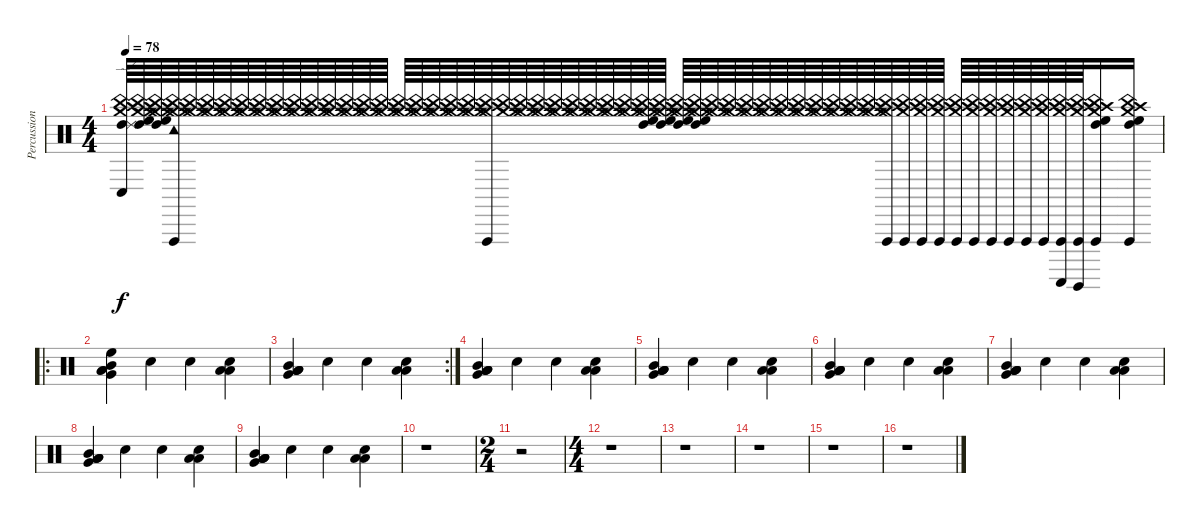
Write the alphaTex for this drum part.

\track ("Percussion" "Percussion") {instrument percussion}
\staff {score}
\articulation defaults
\ts (4 4)
\tempo 78
\clef neutral
\ks c
("Crash medium (hit)" "High Tom (hit)" "Crash high (hit)" "Ride (edge) 2" "Conga low (hit)" "China (hit)").64{dy f} ("Crash medium (hit)" "High Tom (hit)" "Crash high (hit)" "High Floor Tom (hit)" "China (hit)" "Crash medium (hit)").64 ("Crash medium (hit)" "High Tom (hit)" "Crash high (hit)" "High Floor Tom (hit)" "China (hit)" "Crash medium (hit)").64 ("Crash medium (hit)" "Tambourine (hit)" "Crash high (hit)" "Vibraslap (hit)" "China (hit)" "Crash medium (hit)").64 ("Crash medium (hit)" "Crash high (hit)" "China (hit)" "Crash medium (hit)").64 ("Crash medium (hit)" "Crash high (hit)" "China (hit)" "Crash medium (hit)").64 ("Crash medium (hit)" "Crash high (hit)" "China (hit)" "Crash medium (hit)").64 ("Crash medium (hit)" "Crash high (hit)" "China (hit)" "Crash medium (hit)").64 ("Crash medium (hit)" "Crash high (hit)" "China (hit)" "Crash medium (hit)").64 ("Crash medium (hit)" "Crash high (hit)" "China (hit)" "Crash medium (hit)").64 ("Crash medium (hit)" "Crash high (hit)" "China (hit)" "Crash medium (hit)").64 ("Crash medium (hit)" "Crash high (hit)" "China (hit)" "Crash medium (hit)").64 ("Crash medium (hit)" "Crash high (hit)" "China (hit)" "Crash medium (hit)").64 ("Crash medium (hit)" "Crash high (hit)" "China (hit)" "Crash medium (hit)").64 ("Crash medium (hit)" "Crash high (hit)" "China (hit)" "Crash medium (hit)").64 ("Crash medium (hit)" "Crash high (hit)" "China (hit)" "Crash medium (hit)").64 ("Crash medium (hit)" "Crash high (hit)" "China (hit)" "Crash medium (hit)").64 ("Crash medium (hit)" "Crash high (hit)" "China (hit)" "Crash medium (hit)").64 ("Crash medium (hit)" "Crash high (hit)" "China (hit)" "Crash medium (hit)").64 ("Crash medium (hit)" "Crash high (hit)" "China (hit)" "Crash medium (hit)").64 ("Crash medium (hit)" "Crash high (hit)" "China (hit)" "Crash medium (hit)").64 ("Vibraslap (hit)" "Crash high (hit)" "China (hit)" "Crash medium (hit)").64 ("Crash medium (hit)" "Crash high (hit)" "China (hit)" "Crash medium (hit)").64 ("Crash medium (hit)" "Crash high (hit)" "China (hit)" "Crash medium (hit)").64 ("Crash medium (hit)" "Crash high (hit)" "China (hit)" "Crash medium (hit)").64 ("Crash medium (hit)" "Crash high (hit)" "China (hit)" "Crash medium (hit)").64 ("Crash medium (hit)" "Crash high (hit)" "China (hit)" "Crash medium (hit)").64 ("Crash medium (hit)" "Crash high (hit)" "China (hit)" "Crash medium (hit)").64 ("Crash medium (hit)" "Crash high (hit)" "China (hit)" "Crash medium (hit)").64 ("Crash medium (hit)" "Crash high (hit)" "China (hit)" "Crash medium (hit)").64 ("Crash medium (hit)" "High Tom (hit)" "Crash high (hit)" "High Floor Tom (hit)" "China (hit)" "Crash medium (hit)").64 ("Crash medium (hit)" "High Tom (hit)" "Crash high (hit)" "High Floor Tom (hit)" "China (hit)" "Crash medium (hit)").64 ("Crash medium (hit)" "High Tom (hit)" "Crash high (hit)" "High Floor Tom (hit)" "China (hit)" "Crash medium (hit)").64 ("Crash medium (hit)" "High Tom (hit)" "Crash high (hit)" "High Floor Tom (hit)" "China (hit)" "Crash medium (hit)").64 ("Crash medium (hit)" "Crash high (hit)" "China (hit)" "Crash medium (hit)").64 ("Crash medium (hit)" "Crash high (hit)" "China (hit)" "Crash medium (hit)").64 ("Crash medium (hit)" "Crash high (hit)" "China (hit)" "Crash medium (hit)").64 ("Crash medium (hit)" "Crash high (hit)" "China (hit)" "Crash medium (hit)").64 ("Crash medium (hit)" "Crash high (hit)" "China (hit)" "Crash medium (hit)").64 ("Crash medium (hit)" "Crash high (hit)" "China (hit)" "Crash medium (hit)").64 ("Crash medium (hit)" "Crash high (hit)" "China (hit)" "Crash medium (hit)").64 ("Crash medium (hit)" "Crash high (hit)" "China (hit)" "Crash medium (hit)").64 ("Crash medium (hit)" "Crash high (hit)" "China (hit)" "Crash medium (hit)").64 ("Crash medium (hit)" "Crash high (hit)" "China (hit)" "Crash medium (hit)").64 ("Vibraslap (hit)" "Crash high (hit)" "China (hit)" "Crash medium (hit)").64 ("Vibraslap (hit)" "Crash high (hit)" "China (hit)" "Crash medium (hit)").64 ("Vibraslap (hit)" "Crash high (hit)" "China (hit)" "Crash medium (hit)").64 ("Vibraslap (hit)" "Crash high (hit)" "China (hit)" "Crash medium (hit)").64 ("Vibraslap (hit)" "Crash high (hit)" "China (hit)" "Crash medium (hit)").64 ("Vibraslap (hit)" "Crash high (hit)" "China (hit)" "Crash medium (hit)").64 ("Vibraslap (hit)" "Crash high (hit)" "China (hit)" "Crash medium (hit)").64 ("Vibraslap (hit)" "Crash high (hit)" "China (hit)" "Crash medium (hit)").64 ("Vibraslap (hit)" "Crash high (hit)" "China (hit)" "Crash medium (hit)").64 ("Vibraslap (hit)" "Crash high (hit)" "China (hit)" "Crash medium (hit)").64 ("Vibraslap (hit)" "Splash (hit)" "Crash high (hit)" "Guiro (scrap-return)" "China (hit)" "Crash medium (hit)").64 ("Vibraslap (hit)" "Splash (hit)" "Crash high (hit)" "Guiro (hit)" "China (hit)" "Crash medium (hit)").64 ("Vibraslap (hit)" "High Tom (hit)" "Crash high (hit)" "High Floor Tom (hit)" "China (hit)" "Crash medium (hit)").16 ("Vibraslap (hit)" "High Tom (hit)" "Crash high (hit)" "High Floor Tom (hit)" "China (hit)" "Crash medium (hit)").16 |
\ro
("High Floor Tom (hit)" "Low Floor Tom (hit)" "Very Low Tom (hit)" "Mid Tom (hit)" "Low Tom (hit)").4 "Snare (hit) 2".4 "Snare (hit) 2".4 ("Low Tom (hit)" "Snare (hit) 2" "Low Tom (hit)").4 |
\rc 2
("Low Tom (hit)" "Low Floor Tom (hit)" "Very Low Tom (hit)" "Mid Tom (hit)" "Low Tom (hit)").4 "Snare (hit) 2".4 "Snare (hit) 2".4 ("Low Tom (hit)" "Snare (hit) 2" "Low Tom (hit)").4 |
("Low Tom (hit)" "Low Floor Tom (hit)" "Very Low Tom (hit)" "Mid Tom (hit)" "Low Tom (hit)").4 "Snare (hit) 2".4 "Snare (hit) 2".4 ("Low Tom (hit)" "Snare (hit) 2" "Low Tom (hit)").4 |
("Low Tom (hit)" "Low Floor Tom (hit)" "Very Low Tom (hit)" "Mid Tom (hit)" "Low Tom (hit)").4 "Snare (hit) 2".4 "Snare (hit) 2".4 ("Low Tom (hit)" "Snare (hit) 2" "Low Tom (hit)").4 |
("Low Tom (hit)" "Low Floor Tom (hit)" "Very Low Tom (hit)" "Mid Tom (hit)" "Low Tom (hit)").4 "Snare (hit) 2".4 "Snare (hit) 2".4 ("Low Tom (hit)" "Snare (hit) 2" "Low Tom (hit)").4 |
("Low Tom (hit)" "Low Floor Tom (hit)" "Very Low Tom (hit)" "Mid Tom (hit)" "Low Tom (hit)").4 "Snare (hit) 2".4 "Snare (hit) 2".4 ("Low Tom (hit)" "Snare (hit) 2" "Low Tom (hit)").4 |
("Low Tom (hit)" "Low Floor Tom (hit)" "Very Low Tom (hit)" "Mid Tom (hit)" "Low Tom (hit)").4 "Snare (hit) 2".4 "Snare (hit) 2".4 ("Low Tom (hit)" "Snare (hit) 2" "Low Tom (hit)").4 |
("Low Tom (hit)" "Low Floor Tom (hit)" "Very Low Tom (hit)" "Mid Tom (hit)" "Low Tom (hit)").4 "Snare (hit) 2".4 "Snare (hit) 2".4 ("Low Tom (hit)" "Snare (hit) 2" "Low Tom (hit)").4 |
r.1 |
\ts (2 4)
r.2 |
\ts (4 4)
r.1 |
r.1 |
r.1 |
r.1 |
r.1
